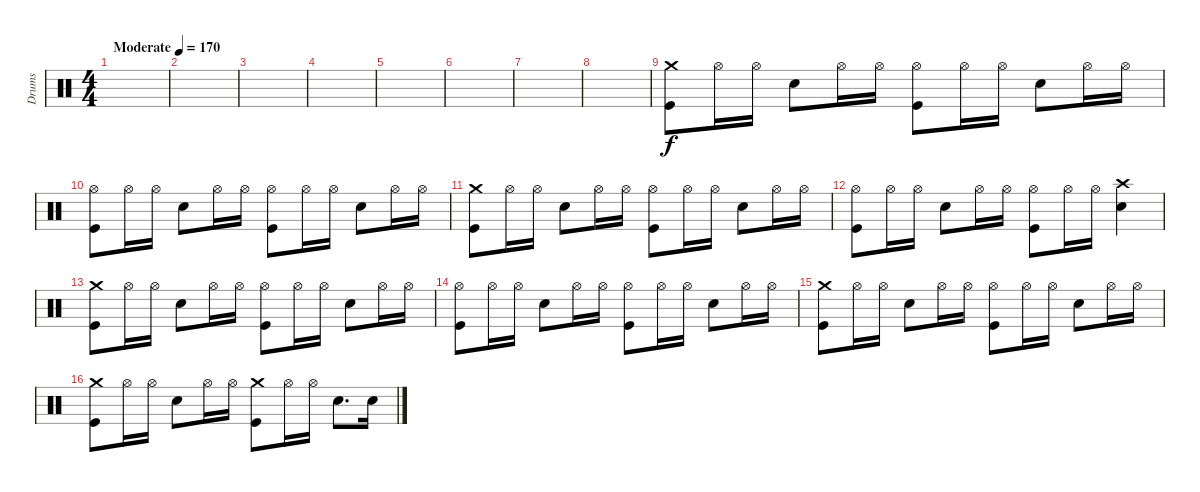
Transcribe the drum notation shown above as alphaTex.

\track ("Drums" "Drums") {instrument percussion}
\staff {score}
\articulation defaults
\ts (4 4)
\tempo (170 "Moderate")
\clef neutral
\ks c
|
|
|
|
|
|
|
|
("Crash medium (hit)" "Kick (hit)").8 "Hi-Hat (open)".16 "Hi-Hat (open)".16 "Snare (hit) 2".8 "Hi-Hat (open)".16 "Hi-Hat (open)".16 ("Hi-Hat (open)" "Kick (hit)").8 "Hi-Hat (open)".16 "Hi-Hat (open)".16 "Snare (hit) 2".8 "Hi-Hat (open)".16 "Hi-Hat (open)".16 |
("Hi-Hat (open)" "Kick (hit)").8 "Hi-Hat (open)".16 "Hi-Hat (open)".16 "Snare (hit) 2".8 "Hi-Hat (open)".16 "Hi-Hat (open)".16 ("Hi-Hat (open)" "Kick (hit)").8 "Hi-Hat (open)".16 "Hi-Hat (open)".16 "Snare (hit) 2".8 "Hi-Hat (open)".16 "Hi-Hat (open)".16 |
("Crash medium (hit)" "Kick (hit)").8 "Hi-Hat (open)".16 "Hi-Hat (open)".16 "Snare (hit) 2".8 "Hi-Hat (open)".16 "Hi-Hat (open)".16 ("Hi-Hat (open)" "Kick (hit)").8 "Hi-Hat (open)".16 "Hi-Hat (open)".16 "Snare (hit) 2".8 "Hi-Hat (open)".16 "Hi-Hat (open)".16 |
("Hi-Hat (open)" "Kick (hit)").8 "Hi-Hat (open)".16 "Hi-Hat (open)".16 "Snare (hit) 2".8 "Hi-Hat (open)".16 "Hi-Hat (open)".16 ("Hi-Hat (open)" "Kick (hit)").8 "Hi-Hat (open)".16 "Hi-Hat (open)".16 ("Crash high (hit)" "Snare (hit) 2").4 |
("Crash medium (hit)" "Kick (hit)").8 "Hi-Hat (open)".16 "Hi-Hat (open)".16 "Snare (hit) 2".8 "Hi-Hat (open)".16 "Hi-Hat (open)".16 ("Hi-Hat (open)" "Kick (hit)").8 "Hi-Hat (open)".16 "Hi-Hat (open)".16 "Snare (hit) 2".8 "Hi-Hat (open)".16 "Hi-Hat (open)".16 |
("Hi-Hat (open)" "Kick (hit)").8 "Hi-Hat (open)".16 "Hi-Hat (open)".16 "Snare (hit) 2".8 "Hi-Hat (open)".16 "Hi-Hat (open)".16 ("Hi-Hat (open)" "Kick (hit)").8 "Hi-Hat (open)".16 "Hi-Hat (open)".16 "Snare (hit) 2".8 "Hi-Hat (open)".16 "Hi-Hat (open)".16 |
("Crash medium (hit)" "Kick (hit)").8 "Hi-Hat (open)".16 "Hi-Hat (open)".16 "Snare (hit) 2".8 "Hi-Hat (open)".16 "Hi-Hat (open)".16 ("Hi-Hat (open)" "Kick (hit)").8 "Hi-Hat (open)".16 "Hi-Hat (open)".16 "Snare (hit) 2".8 "Hi-Hat (open)".16 "Hi-Hat (open)".16 |
("Crash medium (hit)" "Kick (hit)").8 "Hi-Hat (open)".16 "Hi-Hat (open)".16 "Snare (hit) 2".8 "Hi-Hat (open)".16 "Hi-Hat (open)".16 ("Crash medium (hit)" "Kick (hit)").8 "Hi-Hat (open)".16 "Hi-Hat (open)".16 "Snare (hit) 2".8{d} "Snare (hit) 2".16
